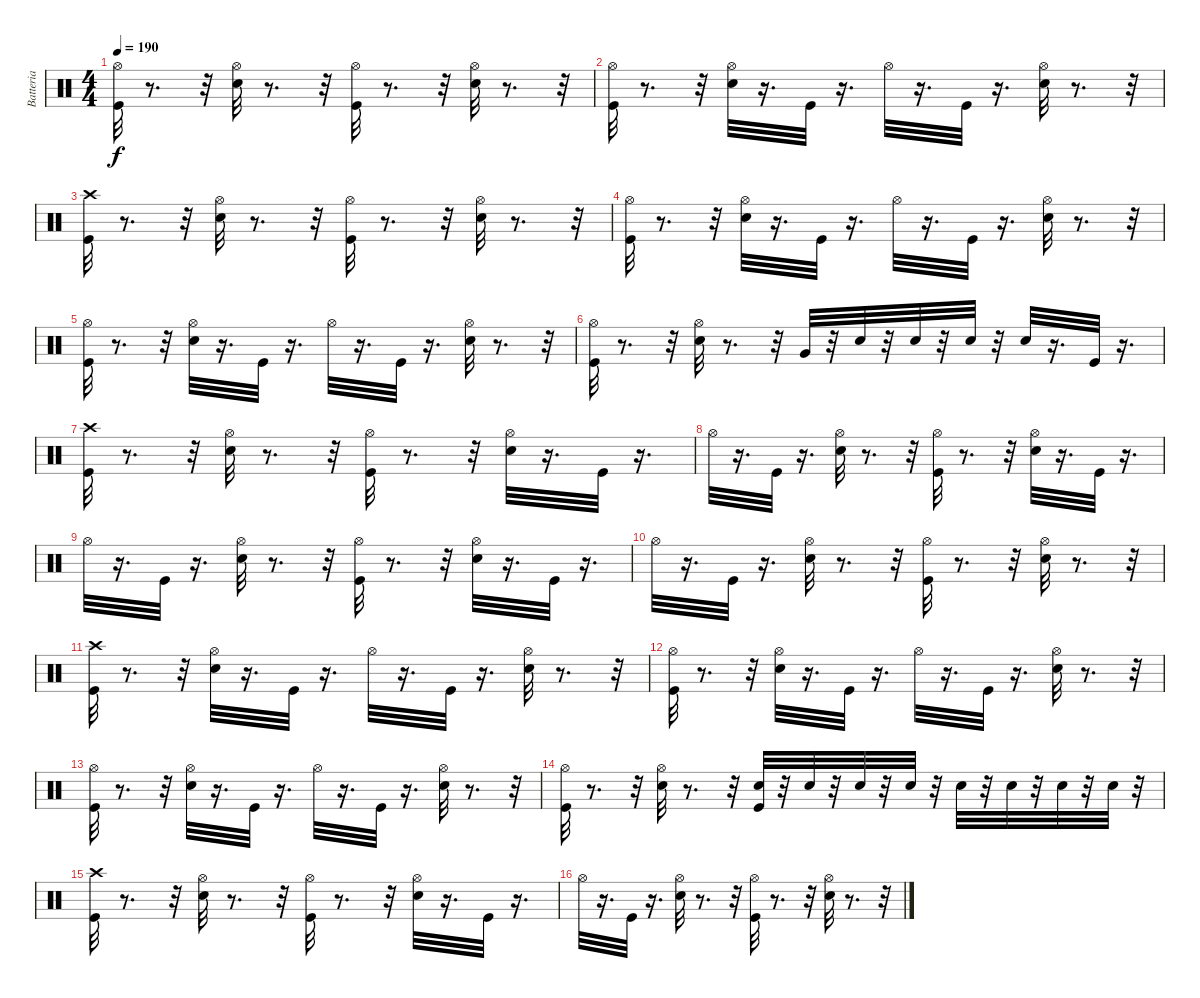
\track ("Batteria" "Batteria") {instrument percussion}
\staff {score}
\articulation defaults
\ts (4 4)
\tempo 190
\clef neutral
\ks c
("Hi-Hat (open)" "Kick (hit)").32{dy f} r.8{d} r.32 ("Snare (hit) 2" "Hi-Hat (open)").32 r.8{d} r.32 ("Hi-Hat (open)" "Kick (hit)").32 r.8{d} r.32 ("Hi-Hat (open)" "Snare (hit) 2").32 r.8{d} r.32 |
("Kick (hit)" "Hi-Hat (open)").32 r.8{d} r.32 ("Hi-Hat (open)" "Snare (hit) 2").32 r.16{d} "Kick (hit)".32 r.16{d} "Hi-Hat (open)".32 r.16{d} "Kick (hit)".32 r.16{d} ("Hi-Hat (open)" "Snare (hit) 2").32 r.8{d} r.32 |
("Crash high (hit)" "Kick (hit)").32 r.8{d} r.32 ("Snare (hit) 2" "Hi-Hat (open)").32 r.8{d} r.32 ("Hi-Hat (open)" "Kick (hit)").32 r.8{d} r.32 ("Hi-Hat (open)" "Snare (hit) 2").32 r.8{d} r.32 |
("Kick (hit)" "Hi-Hat (open)").32 r.8{d} r.32 ("Hi-Hat (open)" "Snare (hit) 2").32 r.16{d} "Kick (hit)".32 r.16{d} "Hi-Hat (open)".32 r.16{d} "Kick (hit)".32 r.16{d} ("Hi-Hat (open)" "Snare (hit) 2").32 r.8{d} r.32 |
("Hi-Hat (open)" "Kick (hit)").32 r.8{d} r.32 ("Snare (hit) 2" "Hi-Hat (open)").32 r.16{d} "Kick (hit)".32 r.16{d} "Hi-Hat (open)".32 r.16{d} "Kick (hit)".32 r.16{d} ("Hi-Hat (open)" "Snare (hit) 2").32 r.8{d} r.32 |
("Kick (hit)" "Hi-Hat (open)").32 r.8{d} r.32 ("Hi-Hat (open)" "Snare (hit) 2").32 r.8{d} r.32 "Very Low Tom (hit)".32 r.32 "Snare (hit) 2".32 r.32 "Snare (hit) 2".32 r.32 "Snare (hit) 2".32 r.32 "Snare (hit) 2".32 r.16{d} "Kick (hit)".32 r.16{d} |
("Crash high (hit)" "Kick (hit)").32 r.8{d} r.32 ("Snare (hit) 2" "Hi-Hat (open)").32 r.8{d} r.32 ("Hi-Hat (open)" "Kick (hit)").32 r.8{d} r.32 ("Hi-Hat (open)" "Snare (hit) 2").32 r.16{d} "Kick (hit)".32 r.16{d} |
"Hi-Hat (open)".32 r.16{d} "Kick (hit)".32 r.16{d} ("Hi-Hat (open)" "Snare (hit) 2").32 r.8{d} r.32 ("Hi-Hat (open)" "Kick (hit)").32 r.8{d} r.32 ("Hi-Hat (open)" "Snare (hit) 2").32 r.16{d} "Kick (hit)".32 r.16{d} |
"Hi-Hat (open)".32 r.16{d} "Kick (hit)".32 r.16{d} ("Snare (hit) 2" "Hi-Hat (open)").32 r.8{d} r.32 ("Hi-Hat (open)" "Kick (hit)").32 r.8{d} r.32 ("Hi-Hat (open)" "Snare (hit) 2").32 r.16{d} "Kick (hit)".32 r.16{d} |
"Hi-Hat (open)".32 r.16{d} "Kick (hit)".32 r.16{d} ("Hi-Hat (open)" "Snare (hit) 2").32 r.8{d} r.32 ("Hi-Hat (open)" "Kick (hit)").32 r.8{d} r.32 ("Hi-Hat (open)" "Snare (hit) 2").32 r.8{d} r.32 |
("Crash high (hit)" "Kick (hit)").32 r.8{d} r.32 ("Snare (hit) 2" "Hi-Hat (open)").32 r.16{d} "Kick (hit)".32 r.16{d} "Hi-Hat (open)".32 r.16{d} "Kick (hit)".32 r.16{d} ("Hi-Hat (open)" "Snare (hit) 2").32 r.8{d} r.32 |
("Kick (hit)" "Hi-Hat (open)").32 r.8{d} r.32 ("Hi-Hat (open)" "Snare (hit) 2").32 r.16{d} "Kick (hit)".32 r.16{d} "Hi-Hat (open)".32 r.16{d} "Kick (hit)".32 r.16{d} ("Hi-Hat (open)" "Snare (hit) 2").32 r.8{d} r.32 |
("Hi-Hat (open)" "Kick (hit)").32 r.8{d} r.32 ("Snare (hit) 2" "Hi-Hat (open)").32 r.16{d} "Kick (hit)".32 r.16{d} "Hi-Hat (open)".32 r.16{d} "Kick (hit)".32 r.16{d} ("Hi-Hat (open)" "Snare (hit) 2").32 r.8{d} r.32 |
("Kick (hit)" "Hi-Hat (open)").32 r.8{d} r.32 ("Hi-Hat (open)" "Snare (hit) 2").32 r.8{d} r.32 ("Snare (hit) 2" "Kick (hit)").32 r.32 "Snare (hit) 2".32 r.32 "Snare (hit) 2".32 r.32 "Snare (hit) 2".32 r.32 "Snare (hit) 2".32 r.32 "Snare (hit) 2".32 r.32 "Snare (hit) 2".32 r.32 "Snare (hit) 2".32 r.32 |
("Crash high (hit)" "Kick (hit)").32 r.8{d} r.32 ("Snare (hit) 2" "Hi-Hat (open)").32 r.8{d} r.32 ("Hi-Hat (open)" "Kick (hit)").32 r.8{d} r.32 ("Hi-Hat (open)" "Snare (hit) 2").32 r.16{d} "Kick (hit)".32 r.16{d} |
"Hi-Hat (open)".32 r.16{d} "Kick (hit)".32 r.16{d} ("Hi-Hat (open)" "Snare (hit) 2").32 r.8{d} r.32 ("Hi-Hat (open)" "Kick (hit)").32 r.8{d} r.32 ("Hi-Hat (open)" "Snare (hit) 2").32 r.8{d} r.32
